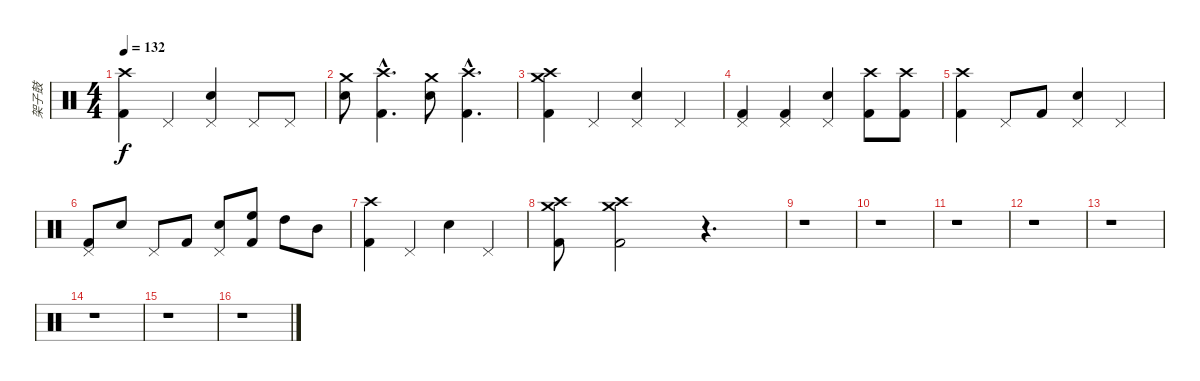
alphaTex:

\track ("架子鼓" "架子鼓") {instrument percussion}
\staff {score}
\articulation defaults
\ts (4 4)
\tempo 132
\clef neutral
\ks c
("Crash high (hit)" "Kick (hit) 2").4{dy f} "Pedal Hi-Hat (hit)".4 ("Pedal Hi-Hat (hit)" "Electric Snare (hit)").4 "Pedal Hi-Hat (hit)".8 "Pedal Hi-Hat (hit)".8 |
("Crash medium (hit)" "Electric Snare (hit)").8 ("Crash high (hit)"{hac} "Kick (hit) 2"{hac}).4{d} ("Crash medium (hit)" "Electric Snare (hit)").8 ("Crash high (hit)"{hac} "Kick (hit) 2"{hac}).4{d} |
("Crash medium (hit)" "Crash high (hit)" "Kick (hit) 2").4 "Pedal Hi-Hat (hit)".4 ("Pedal Hi-Hat (hit)" "Electric Snare (hit)").4 "Pedal Hi-Hat (hit)".4 |
("Pedal Hi-Hat (hit)" "Kick (hit) 2").4 ("Pedal Hi-Hat (hit)" "Kick (hit) 2").4 ("Pedal Hi-Hat (hit)" "Electric Snare (hit)").4 ("Crash high (hit)" "Kick (hit) 2").8 ("Crash high (hit)" "Kick (hit) 2").8 |
("Crash high (hit)" "Kick (hit) 2").4 "Pedal Hi-Hat (hit)".8 "Kick (hit) 2".8 ("Pedal Hi-Hat (hit)" "Electric Snare (hit)").4 "Pedal Hi-Hat (hit)".4 |
("Pedal Hi-Hat (hit)" "Kick (hit) 2").8 "Electric Snare (hit)".8 "Pedal Hi-Hat (hit)".8 "Kick (hit) 2".8 ("Pedal Hi-Hat (hit)" "Electric Snare (hit)").8 ("High Floor Tom (hit)" "Kick (hit) 2").8 "High Tom (hit)".8 "Mid Tom (hit)".8 |
("Crash high (hit)" "Kick (hit) 2").4 "Pedal Hi-Hat (hit)".4 "Electric Snare (hit)".4 "Pedal Hi-Hat (hit)".4 |
("Crash high (hit)" "Crash medium (hit)" "Kick (hit) 2").8 ("Crash high (hit)" "Crash medium (hit)" "Kick (hit) 2").2 r.4{d} |
r.1 |
r.1 |
r.1 |
r.1 |
r.1 |
r.1 |
r.1 |
r.1
